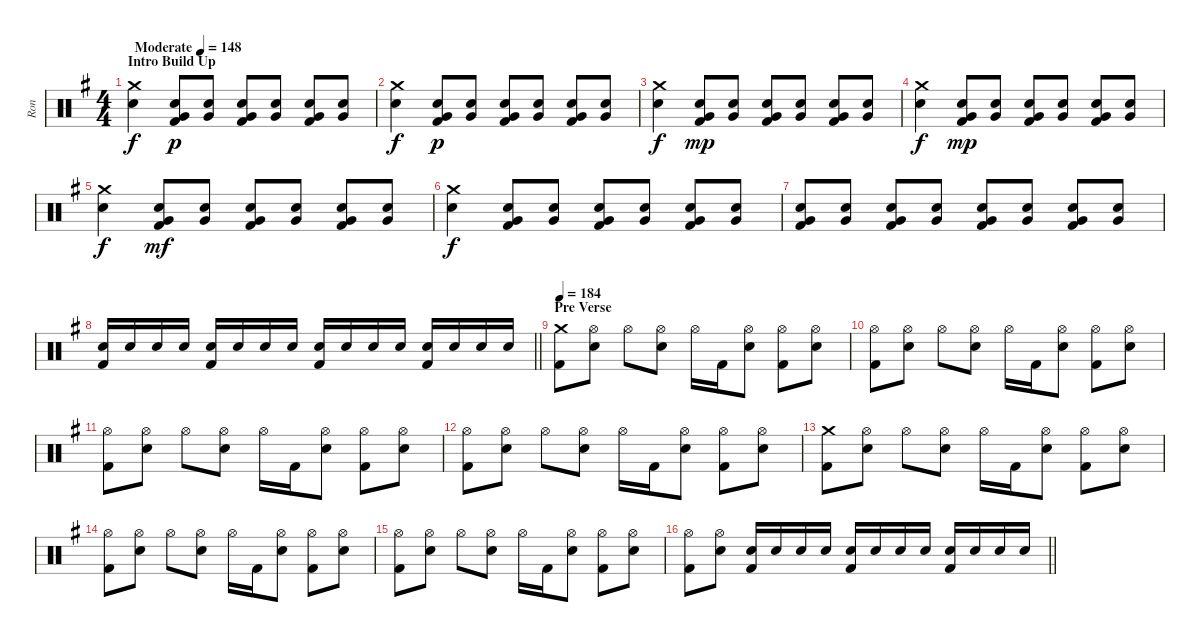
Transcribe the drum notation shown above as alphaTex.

\track ("Ron" "Ron") {instrument percussion}
\staff {score}
\articulation defaults
\ts (4 4)
\section ("" "Intro Build Up")
\tempo (148 "Moderate")
\clef neutral
\ks eminor
("Crash medium (hit)" "Electric Snare (hit)").4{dy f} ("Electric Snare (hit)" "Very Low Tom (hit)" "Kick (hit) 2").8{dy p} ("Electric Snare (hit)" "Very Low Tom (hit)").8 ("Electric Snare (hit)" "Very Low Tom (hit)" "Kick (hit) 2").8 ("Electric Snare (hit)" "Very Low Tom (hit)").8 ("Electric Snare (hit)" "Very Low Tom (hit)" "Kick (hit) 2").8 ("Electric Snare (hit)" "Very Low Tom (hit)").8 |
("Crash medium (hit)" "Electric Snare (hit)").4{dy f} ("Electric Snare (hit)" "Very Low Tom (hit)" "Kick (hit) 2").8{dy p} ("Electric Snare (hit)" "Very Low Tom (hit)").8 ("Electric Snare (hit)" "Very Low Tom (hit)" "Kick (hit) 2").8 ("Electric Snare (hit)" "Very Low Tom (hit)").8 ("Electric Snare (hit)" "Very Low Tom (hit)" "Kick (hit) 2").8 ("Electric Snare (hit)" "Very Low Tom (hit)").8 |
("Crash medium (hit)" "Electric Snare (hit)").4{dy f} ("Electric Snare (hit)" "Very Low Tom (hit)" "Kick (hit) 2").8{dy mp} ("Electric Snare (hit)" "Very Low Tom (hit)").8 ("Electric Snare (hit)" "Very Low Tom (hit)" "Kick (hit) 2").8 ("Electric Snare (hit)" "Very Low Tom (hit)").8 ("Electric Snare (hit)" "Very Low Tom (hit)" "Kick (hit) 2").8 ("Electric Snare (hit)" "Very Low Tom (hit)").8 |
("Crash medium (hit)" "Electric Snare (hit)").4{dy f} ("Electric Snare (hit)" "Very Low Tom (hit)" "Kick (hit) 2").8{dy mp} ("Electric Snare (hit)" "Very Low Tom (hit)").8 ("Electric Snare (hit)" "Very Low Tom (hit)" "Kick (hit) 2").8 ("Electric Snare (hit)" "Very Low Tom (hit)").8 ("Electric Snare (hit)" "Very Low Tom (hit)" "Kick (hit) 2").8 ("Electric Snare (hit)" "Very Low Tom (hit)").8 |
("Crash medium (hit)" "Electric Snare (hit)").4{dy f} ("Electric Snare (hit)" "Very Low Tom (hit)" "Kick (hit) 2").8{dy mf} ("Electric Snare (hit)" "Very Low Tom (hit)").8 ("Electric Snare (hit)" "Very Low Tom (hit)" "Kick (hit) 2").8 ("Electric Snare (hit)" "Very Low Tom (hit)").8 ("Electric Snare (hit)" "Very Low Tom (hit)" "Kick (hit) 2").8 ("Electric Snare (hit)" "Very Low Tom (hit)").8 |
("Crash medium (hit)" "Electric Snare (hit)").4{dy f} ("Electric Snare (hit)" "Very Low Tom (hit)" "Kick (hit) 2").8 ("Electric Snare (hit)" "Very Low Tom (hit)").8 ("Electric Snare (hit)" "Very Low Tom (hit)" "Kick (hit) 2").8 ("Electric Snare (hit)" "Very Low Tom (hit)").8 ("Electric Snare (hit)" "Very Low Tom (hit)" "Kick (hit) 2").8 ("Electric Snare (hit)" "Very Low Tom (hit)").8 |
("Electric Snare (hit)" "Very Low Tom (hit)" "Kick (hit) 2").8 ("Electric Snare (hit)" "Very Low Tom (hit)").8 ("Electric Snare (hit)" "Very Low Tom (hit)" "Kick (hit) 2").8 ("Electric Snare (hit)" "Very Low Tom (hit)").8 ("Electric Snare (hit)" "Very Low Tom (hit)" "Kick (hit) 2").8 ("Electric Snare (hit)" "Very Low Tom (hit)").8 ("Electric Snare (hit)" "Very Low Tom (hit)" "Kick (hit) 2").8 ("Electric Snare (hit)" "Very Low Tom (hit)").8 |
\barLineRight lightlight
("Electric Snare (hit)" "Kick (hit) 2").16 "Electric Snare (hit)".16 "Electric Snare (hit)".16 "Electric Snare (hit)".16 ("Electric Snare (hit)" "Kick (hit) 2").16 "Electric Snare (hit)".16 "Electric Snare (hit)".16 "Electric Snare (hit)".16 ("Electric Snare (hit)" "Kick (hit) 2").16 "Electric Snare (hit)".16 "Electric Snare (hit)".16 "Electric Snare (hit)".16 ("Electric Snare (hit)" "Kick (hit) 2").16 "Electric Snare (hit)".16 "Electric Snare (hit)".16 "Electric Snare (hit)".16 |
\section ("" "Pre Verse")
\tempo 184
("Crash medium (hit)" "Kick (hit) 2").8 ("Hi-Hat (open)" "Electric Snare (hit)").8 "Hi-Hat (open)".8 ("Hi-Hat (open)" "Electric Snare (hit)").8 "Hi-Hat (open)".16 "Kick (hit) 2".16 ("Hi-Hat (open)" "Electric Snare (hit)").8 ("Hi-Hat (open)" "Kick (hit) 2").8 ("Hi-Hat (open)" "Electric Snare (hit)").8 |
("Hi-Hat (open)" "Kick (hit) 2").8 ("Hi-Hat (open)" "Electric Snare (hit)").8 "Hi-Hat (open)".8 ("Hi-Hat (open)" "Electric Snare (hit)").8 "Hi-Hat (open)".16 "Kick (hit) 2".16 ("Hi-Hat (open)" "Electric Snare (hit)").8 ("Hi-Hat (open)" "Kick (hit) 2").8 ("Hi-Hat (open)" "Electric Snare (hit)").8 |
("Hi-Hat (open)" "Kick (hit) 2").8 ("Hi-Hat (open)" "Electric Snare (hit)").8 "Hi-Hat (open)".8 ("Hi-Hat (open)" "Electric Snare (hit)").8 "Hi-Hat (open)".16 "Kick (hit) 2".16 ("Hi-Hat (open)" "Electric Snare (hit)").8 ("Hi-Hat (open)" "Kick (hit) 2").8 ("Hi-Hat (open)" "Electric Snare (hit)").8 |
("Hi-Hat (open)" "Kick (hit) 2").8 ("Hi-Hat (open)" "Electric Snare (hit)").8 "Hi-Hat (open)".8 ("Hi-Hat (open)" "Electric Snare (hit)").8 "Hi-Hat (open)".16 "Kick (hit) 2".16 ("Hi-Hat (open)" "Electric Snare (hit)").8 ("Hi-Hat (open)" "Kick (hit) 2").8 ("Hi-Hat (open)" "Electric Snare (hit)").8 |
("Crash medium (hit)" "Kick (hit) 2").8 ("Hi-Hat (open)" "Electric Snare (hit)").8 "Hi-Hat (open)".8 ("Hi-Hat (open)" "Electric Snare (hit)").8 "Hi-Hat (open)".16 "Kick (hit) 2".16 ("Hi-Hat (open)" "Electric Snare (hit)").8 ("Hi-Hat (open)" "Kick (hit) 2").8 ("Hi-Hat (open)" "Electric Snare (hit)").8 |
("Hi-Hat (open)" "Kick (hit) 2").8 ("Hi-Hat (open)" "Electric Snare (hit)").8 "Hi-Hat (open)".8 ("Hi-Hat (open)" "Electric Snare (hit)").8 "Hi-Hat (open)".16 "Kick (hit) 2".16 ("Hi-Hat (open)" "Electric Snare (hit)").8 ("Hi-Hat (open)" "Kick (hit) 2").8 ("Hi-Hat (open)" "Electric Snare (hit)").8 |
("Hi-Hat (open)" "Kick (hit) 2").8 ("Hi-Hat (open)" "Electric Snare (hit)").8 "Hi-Hat (open)".8 ("Hi-Hat (open)" "Electric Snare (hit)").8 "Hi-Hat (open)".16 "Kick (hit) 2".16 ("Hi-Hat (open)" "Electric Snare (hit)").8 ("Hi-Hat (open)" "Kick (hit) 2").8 ("Hi-Hat (open)" "Electric Snare (hit)").8 |
\barLineRight lightlight
("Hi-Hat (open)" "Kick (hit) 2").8 ("Hi-Hat (open)" "Electric Snare (hit)").8 ("Electric Snare (hit)" "Kick (hit) 2").16 "Electric Snare (hit)".16 "Electric Snare (hit)".16 "Electric Snare (hit)".16 ("Electric Snare (hit)" "Kick (hit) 2").16 "Electric Snare (hit)".16 "Electric Snare (hit)".16 "Electric Snare (hit)".16 ("Electric Snare (hit)" "Kick (hit) 2").16 "Electric Snare (hit)".16 "Electric Snare (hit)".16 "Electric Snare (hit)".16
